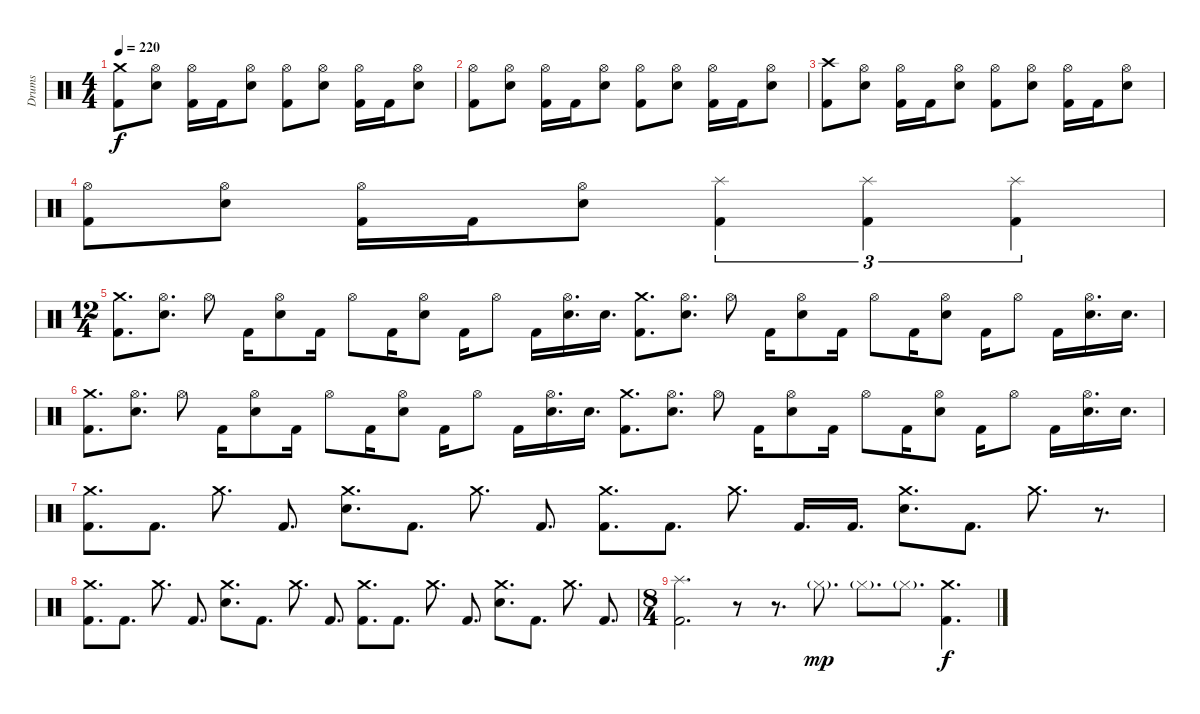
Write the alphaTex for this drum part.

\track ("Drums" "Drums") {instrument percussion}
\staff {score}
\articulation defaults
\ts (4 4)
\tempo 220
\clef neutral
\ks c
("Crash medium (hit)" "Kick (hit) 2").8{dy f} ("Hi-Hat (open)" "Electric Snare (hit)").8 ("Hi-Hat (open)" "Kick (hit) 2").16 "Kick (hit) 2".16 ("Hi-Hat (open)" "Electric Snare (hit)").8 ("Hi-Hat (open)" "Kick (hit) 2").8 ("Hi-Hat (open)" "Electric Snare (hit)").8 ("Hi-Hat (open)" "Kick (hit) 2").16 "Kick (hit) 2".16 ("Hi-Hat (open)" "Electric Snare (hit)").8 |
("Hi-Hat (open)" "Kick (hit) 2").8 ("Hi-Hat (open)" "Electric Snare (hit)").8 ("Hi-Hat (open)" "Kick (hit) 2").16 "Kick (hit) 2".16 ("Hi-Hat (open)" "Electric Snare (hit)").8 ("Hi-Hat (open)" "Kick (hit) 2").8 ("Hi-Hat (open)" "Electric Snare (hit)").8 ("Hi-Hat (open)" "Kick (hit) 2").16 "Kick (hit) 2".16 ("Hi-Hat (open)" "Electric Snare (hit)").8 |
("Crash high (hit)" "Kick (hit) 2").8 ("Hi-Hat (open)" "Electric Snare (hit)").8 ("Hi-Hat (open)" "Kick (hit) 2").16 "Kick (hit) 2".16 ("Hi-Hat (open)" "Electric Snare (hit)").8 ("Hi-Hat (open)" "Kick (hit) 2").8 ("Hi-Hat (open)" "Electric Snare (hit)").8 ("Hi-Hat (open)" "Kick (hit) 2").16 "Kick (hit) 2".16 ("Hi-Hat (open)" "Electric Snare (hit)").8 |
("Hi-Hat (open)" "Kick (hit) 2").8 ("Hi-Hat (open)" "Electric Snare (hit)").8 ("Hi-Hat (open)" "Kick (hit) 2").16 "Kick (hit) 2".16 ("Hi-Hat (open)" "Electric Snare (hit)").8 ("Splash (hit)" "Kick (hit) 2").4{tu (3 2)} ("Splash (hit)" "Kick (hit) 2").4{tu (3 2)} ("Splash (hit)" "Kick (hit) 2").4{tu (3 2)} |
\ts (12 4)
("Crash medium (hit)" "Kick (hit) 2").8{d} ("Hi-Hat (open)" "Electric Snare (hit)").8{d} "Hi-Hat (open)".8 "Kick (hit) 2".16 ("Hi-Hat (open)" "Electric Snare (hit)").8 "Kick (hit) 2".16 "Hi-Hat (open)".8 "Kick (hit) 2".16 ("Hi-Hat (open)" "Electric Snare (hit)").8 "Kick (hit) 2".16 "Hi-Hat (open)".8 "Kick (hit) 2".16 ("Hi-Hat (open)" "Electric Snare (hit)").16{d} "Electric Snare (hit)".16{d} ("Crash medium (hit)" "Kick (hit) 2").8{d} ("Hi-Hat (open)" "Electric Snare (hit)").8{d} "Hi-Hat (open)".8 "Kick (hit) 2".16 ("Hi-Hat (open)" "Electric Snare (hit)").8 "Kick (hit) 2".16 "Hi-Hat (open)".8 "Kick (hit) 2".16 ("Hi-Hat (open)" "Electric Snare (hit)").8 "Kick (hit) 2".16 "Hi-Hat (open)".8 "Kick (hit) 2".16 ("Hi-Hat (open)" "Electric Snare (hit)").16{d} "Electric Snare (hit)".16{d} |
("Crash medium (hit)" "Kick (hit) 2").8{d} ("Hi-Hat (open)" "Electric Snare (hit)").8{d} "Hi-Hat (open)".8 "Kick (hit) 2".16 ("Hi-Hat (open)" "Electric Snare (hit)").8 "Kick (hit) 2".16 "Hi-Hat (open)".8 "Kick (hit) 2".16 ("Hi-Hat (open)" "Electric Snare (hit)").8 "Kick (hit) 2".16 "Hi-Hat (open)".8 "Kick (hit) 2".16 ("Hi-Hat (open)" "Electric Snare (hit)").16{d} "Electric Snare (hit)".16{d} ("Crash medium (hit)" "Kick (hit) 2").8{d} ("Hi-Hat (open)" "Electric Snare (hit)").8{d} "Hi-Hat (open)".8 "Kick (hit) 2".16 ("Hi-Hat (open)" "Electric Snare (hit)").8 "Kick (hit) 2".16 "Hi-Hat (open)".8 "Kick (hit) 2".16 ("Hi-Hat (open)" "Electric Snare (hit)").8 "Kick (hit) 2".16 "Hi-Hat (open)".8 "Kick (hit) 2".16 ("Hi-Hat (open)" "Electric Snare (hit)").16{d} "Electric Snare (hit)".16{d} |
("Crash medium (hit)" "Kick (hit) 2").8{d} "Kick (hit) 2".8{d} "Crash medium (hit)".8{d} "Kick (hit) 2".8{d} ("Crash medium (hit)" "Electric Snare (hit)").8{d} "Kick (hit) 2".8{d} "Crash medium (hit)".8{d} "Kick (hit) 2".8{d} ("Crash medium (hit)" "Kick (hit) 2").8{d} "Kick (hit) 2".8{d} "Crash medium (hit)".8{d} "Kick (hit) 2".16{d} "Kick (hit) 2".16{d} ("Crash medium (hit)" "Electric Snare (hit)").8{d} "Kick (hit) 2".8{d} "Crash medium (hit)".8{d} r.8{d} |
("Crash medium (hit)" "Kick (hit) 2").8{d} "Kick (hit) 2".8{d} "Crash medium (hit)".8{d} "Kick (hit) 2".8{d} ("Crash medium (hit)" "Electric Snare (hit)").8{d} "Kick (hit) 2".8{d} "Crash medium (hit)".8{d} "Kick (hit) 2".8{d} ("Crash medium (hit)" "Kick (hit) 2").8{d} "Kick (hit) 2".8{d} "Crash medium (hit)".8{d} "Kick (hit) 2".8{d} ("Crash medium (hit)" "Electric Snare (hit)").8{d} "Kick (hit) 2".8{d} "Crash medium (hit)".8{d} "Kick (hit) 2".8{d} |
\ts (8 4)
("Splash (hit)" "Kick (hit) 2").2{d} r.8 r.8{d} "Hi-Hat (closed)"{g}.8{d dy mp} "Hi-Hat (closed)"{g}.8{d} "Hi-Hat (closed)"{g}.8{d} ("Crash medium (hit)" "Kick (hit) 2").4{d dy f}
